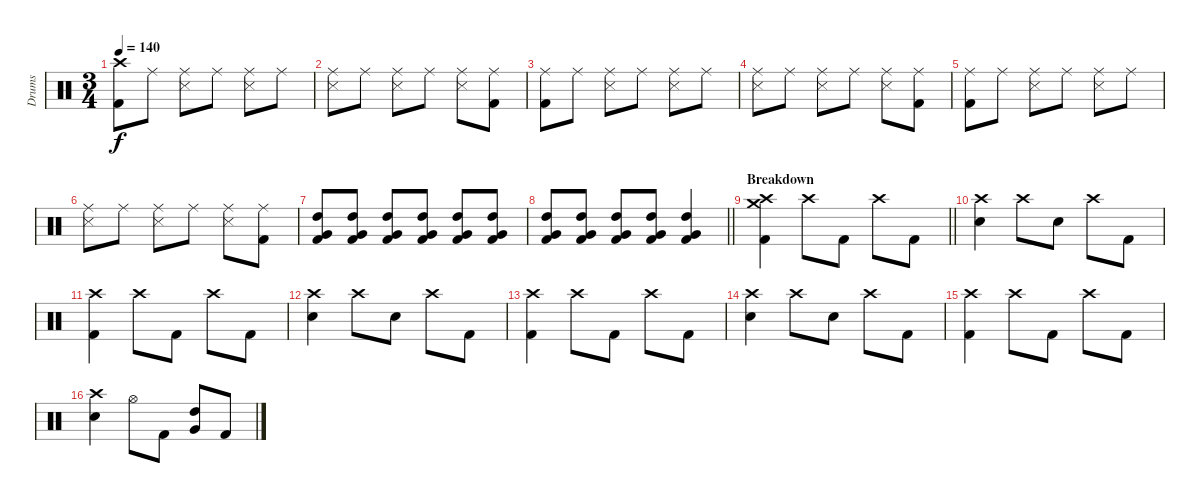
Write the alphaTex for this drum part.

\track ("Drums" "Drums") {instrument percussion}
\staff {score}
\articulation defaults
\ts (3 4)
\tempo 140
\clef neutral
\ks c
("Kick (hit) 2" "Crash high (hit)").8{dy f} "Ride (middle)".8 ("Snare (side stick) 3" "Ride (middle)").8 "Ride (middle)".8 ("Snare (side stick) 3" "Ride (middle)").8 "Ride (middle)".8 |
("Snare (side stick) 3" "Ride (middle)").8 "Ride (middle)".8 ("Snare (side stick) 3" "Ride (middle)").8 "Ride (middle)".8 ("Snare (side stick) 3" "Ride (middle)").8 ("Kick (hit) 2" "Ride (middle)").8 |
("Kick (hit) 2" "Ride (middle)").8 "Ride (middle)".8 ("Snare (side stick) 3" "Ride (middle)").8 "Ride (middle)".8 ("Snare (side stick) 3" "Ride (middle)").8 "Ride (middle)".8 |
("Snare (side stick) 3" "Ride (middle)").8 "Ride (middle)".8 ("Snare (side stick) 3" "Ride (middle)").8 "Ride (middle)".8 ("Snare (side stick) 3" "Ride (middle)").8 ("Kick (hit) 2" "Ride (middle)").8 |
("Kick (hit) 2" "Ride (middle)").8 "Ride (middle)".8 ("Snare (side stick) 3" "Ride (middle)").8 "Ride (middle)".8 ("Snare (side stick) 3" "Ride (middle)").8 "Ride (middle)".8 |
("Snare (side stick) 3" "Ride (middle)").8 "Ride (middle)".8 ("Snare (side stick) 3" "Ride (middle)").8 "Ride (middle)".8 ("Snare (side stick) 3" "Ride (middle)").8 ("Kick (hit) 2" "Ride (middle)").8 |
("Kick (hit) 2" "Very Low Tom (hit)" "High Tom (hit)").8 ("Kick (hit) 2" "Very Low Tom (hit)" "High Tom (hit)").8 ("Kick (hit) 2" "Very Low Tom (hit)" "High Tom (hit)").8 ("Kick (hit) 2" "Very Low Tom (hit)" "High Tom (hit)").8 ("Kick (hit) 2" "Very Low Tom (hit)" "High Tom (hit)").8 ("Kick (hit) 2" "Very Low Tom (hit)" "High Tom (hit)").8 |
\barLineRight lightlight
("Kick (hit) 2" "Very Low Tom (hit)" "High Tom (hit)").8 ("Kick (hit) 2" "Very Low Tom (hit)" "High Tom (hit)").8 ("Kick (hit) 2" "Very Low Tom (hit)" "High Tom (hit)").8 ("Kick (hit) 2" "Very Low Tom (hit)" "High Tom (hit)").8 ("Kick (hit) 2" "Very Low Tom (hit)" "High Tom (hit)").4 |
\section ("" "Breakdown")
\barLineRight lightlight
("Kick (hit) 2" "Crash high (hit)" "Crash medium (hit)").4 "Crash high (hit)".8 "Kick (hit) 2".8 "Crash high (hit)".8 "Kick (hit) 2".8 |
("Electric Snare (hit)" "Crash high (hit)").4 "Crash high (hit)".8 "Electric Snare (hit)".8 "Crash high (hit)".8 "Kick (hit) 2".8 |
("Kick (hit) 2" "Crash high (hit)").4 "Crash high (hit)".8 "Kick (hit) 2".8 "Crash high (hit)".8 "Kick (hit) 2".8 |
("Electric Snare (hit)" "Crash high (hit)").4 "Crash high (hit)".8 "Electric Snare (hit)".8 "Crash high (hit)".8 "Kick (hit) 2".8 |
("Kick (hit) 2" "Crash high (hit)").4 "Crash high (hit)".8 "Kick (hit) 2".8 "Crash high (hit)".8 "Kick (hit) 2".8 |
("Electric Snare (hit)" "Crash high (hit)").4 "Crash high (hit)".8 "Electric Snare (hit)".8 "Crash high (hit)".8 "Kick (hit) 2".8 |
("Kick (hit) 2" "Crash high (hit)").4 "Crash high (hit)".8 "Kick (hit) 2".8 "Crash high (hit)".8 "Kick (hit) 2".8 |
("Electric Snare (hit)" "Crash high (hit)").4 "Hi-Hat (open)".8 "Kick (hit) 2".8 ("Very Low Tom (hit)" "High Tom (hit)").8 "Kick (hit) 2".8
